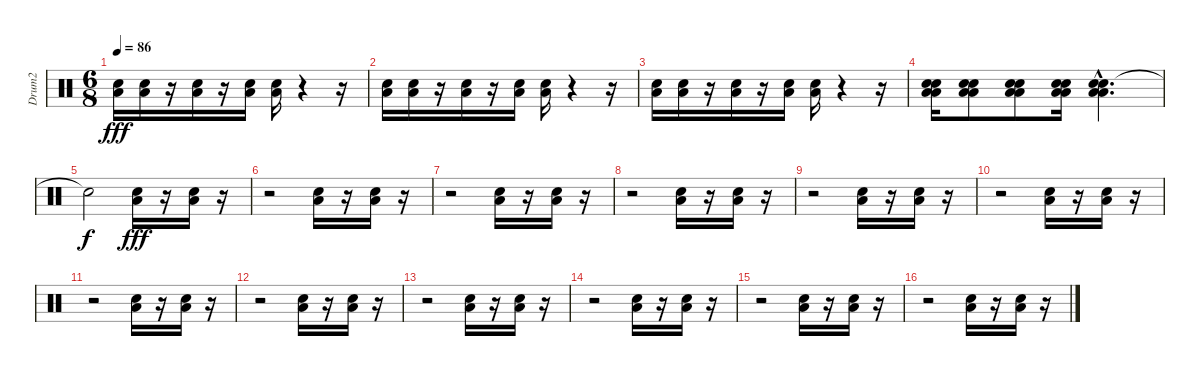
\track ("Drum2" "Drum2") {instrument percussion}
\staff {score}
\articulation defaults
\ts (6 8)
\tempo 86
\clef neutral
\ks c
("Snare (hit) 2" "Low Floor Tom (hit)").16{dy fff} ("Snare (hit) 2" "Low Floor Tom (hit)").16{volume 5} r.16 ("Snare (hit) 2" "Low Floor Tom (hit)").16{volume 6} r.16 ("Snare (hit) 2" "Low Floor Tom (hit)").16{volume 6} ("Snare (hit) 2" "Low Floor Tom (hit)").16{volume 6} r.4 r.16 |
("Snare (hit) 2" "Low Floor Tom (hit)").16{volume 8} ("Snare (hit) 2" "Low Floor Tom (hit)").16{volume 8} r.16 ("Snare (hit) 2" "Low Floor Tom (hit)").16{volume 8} r.16 ("Snare (hit) 2" "Low Floor Tom (hit)").16{volume 8} ("Snare (hit) 2" "Low Floor Tom (hit)").16{volume 9} r.4 r.16 |
("Snare (hit) 2" "Low Floor Tom (hit)").16{volume 10} ("Snare (hit) 2" "Low Floor Tom (hit)").16{volume 10} r.16 ("Snare (hit) 2" "Low Floor Tom (hit)").16{volume 10} r.16 ("Snare (hit) 2" "Low Floor Tom (hit)").16{volume 11} ("Snare (hit) 2" "Low Floor Tom (hit)").16{volume 11} r.4 r.16 |
("Snare (hit) 2" "Snare (hit) 2" "Low Floor Tom (hit)" "Low Floor Tom (hit)").16{volume 12} ("Snare (hit) 2" "Snare (hit) 2" "Low Floor Tom (hit)" "Low Floor Tom (hit)").8 ("Snare (hit) 2" "Snare (hit) 2" "Low Floor Tom (hit)" "Low Floor Tom (hit)").8 ("Snare (hit) 2" "Snare (hit) 2" "Low Floor Tom (hit)" "Low Floor Tom (hit)").16 ("Snare (hit) 2" "Snare (hit) 2" "Low Floor Tom (hit)"{hac} "Low Floor Tom (hit)").4{d} |
"Snare (hit)"{t}.2{dy f} ("Snare (hit) 2" "Low Floor Tom (hit)").16{dy fff volume 9} r.16 ("Snare (hit) 2" "Low Floor Tom (hit)").16 r.16 |
r.2 ("Snare (hit) 2" "Low Floor Tom (hit)").16 r.16 ("Snare (hit) 2" "Low Floor Tom (hit)").16 r.16 |
r.2 ("Snare (hit) 2" "Low Floor Tom (hit)").16 r.16 ("Snare (hit) 2" "Low Floor Tom (hit)").16 r.16 |
r.2 ("Snare (hit) 2" "Low Floor Tom (hit)").16 r.16 ("Snare (hit) 2" "Low Floor Tom (hit)").16 r.16 |
r.2 ("Snare (hit) 2" "Low Floor Tom (hit)").16 r.16 ("Snare (hit) 2" "Low Floor Tom (hit)").16 r.16 |
r.2 ("Snare (hit) 2" "Low Floor Tom (hit)").16 r.16 ("Snare (hit) 2" "Low Floor Tom (hit)").16 r.16 |
r.2 ("Snare (hit) 2" "Low Floor Tom (hit)").16 r.16 ("Snare (hit) 2" "Low Floor Tom (hit)").16 r.16 |
r.2 ("Snare (hit) 2" "Low Floor Tom (hit)").16 r.16 ("Snare (hit) 2" "Low Floor Tom (hit)").16 r.16 |
r.2 ("Snare (hit) 2" "Low Floor Tom (hit)").16 r.16 ("Snare (hit) 2" "Low Floor Tom (hit)").16 r.16 |
r.2 ("Snare (hit) 2" "Low Floor Tom (hit)").16 r.16 ("Snare (hit) 2" "Low Floor Tom (hit)").16 r.16 |
r.2 ("Snare (hit) 2" "Low Floor Tom (hit)").16 r.16 ("Snare (hit) 2" "Low Floor Tom (hit)").16 r.16 |
r.2 ("Snare (hit) 2" "Low Floor Tom (hit)").16 r.16 ("Snare (hit) 2" "Low Floor Tom (hit)").16 r.16
